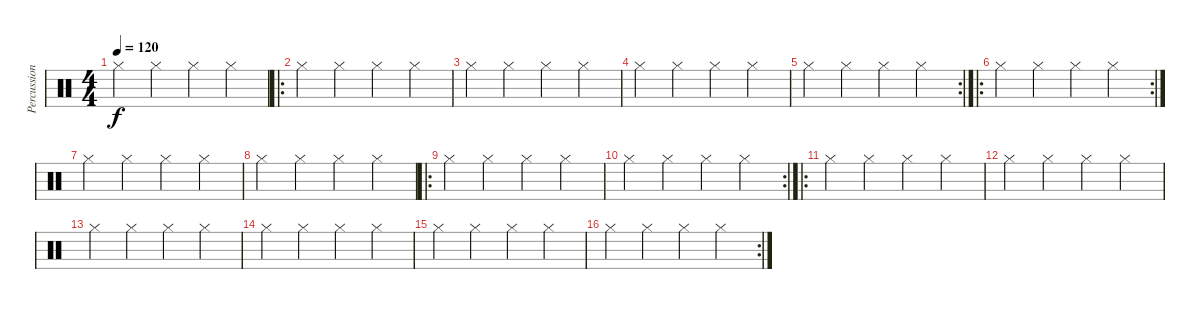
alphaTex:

\track ("Percussioni" "Percussion") {instrument percussion}
\staff {score}
\articulation defaults
\ts (4 4)
\tempo 120
\clef neutral
\ks c "Hi-Hat (closed)".4{dy f} "Hi-Hat (closed)".4 "Hi-Hat (closed)".4 "Hi-Hat (closed)".4
|
\ro "Hi-Hat (closed)".4 "Hi-Hat (closed)".4 "Hi-Hat (closed)".4 "Hi-Hat (closed)".4
|
"Hi-Hat (closed)".4 "Hi-Hat (closed)".4 "Hi-Hat (closed)".4 "Hi-Hat (closed)".4 |
"Hi-Hat (closed)".4 "Hi-Hat (closed)".4 "Hi-Hat (closed)".4 "Hi-Hat (closed)".4 |
\rc 2 "Hi-Hat (closed)".4 "Hi-Hat (closed)".4 "Hi-Hat (closed)".4 "Hi-Hat (closed)".4
|
\ro
\rc 2 "Hi-Hat (closed)".4 "Hi-Hat (closed)".4 "Hi-Hat (closed)".4 "Hi-Hat (closed)".4
|
"Hi-Hat (closed)".4 "Hi-Hat (closed)".4 "Hi-Hat (closed)".4 "Hi-Hat (closed)".4 |
"Hi-Hat (closed)".4 "Hi-Hat (closed)".4 "Hi-Hat (closed)".4 "Hi-Hat (closed)".4 |
\ro "Hi-Hat (closed)".4 "Hi-Hat (closed)".4 "Hi-Hat (closed)".4 "Hi-Hat (closed)".4
|
\rc 2 "Hi-Hat (closed)".4 "Hi-Hat (closed)".4 "Hi-Hat (closed)".4 "Hi-Hat (closed)".4
|
\ro "Hi-Hat (closed)".4 "Hi-Hat (closed)".4 "Hi-Hat (closed)".4 "Hi-Hat (closed)".4
|
"Hi-Hat (closed)".4 "Hi-Hat (closed)".4 "Hi-Hat (closed)".4 "Hi-Hat (closed)".4 |
"Hi-Hat (closed)".4 "Hi-Hat (closed)".4 "Hi-Hat (closed)".4 "Hi-Hat (closed)".4 |
"Hi-Hat (closed)".4 "Hi-Hat (closed)".4 "Hi-Hat (closed)".4 "Hi-Hat (closed)".4 |
"Hi-Hat (closed)".4 "Hi-Hat (closed)".4 "Hi-Hat (closed)".4 "Hi-Hat (closed)".4 |
\rc 2 "Hi-Hat (closed)".4 "Hi-Hat (closed)".4 "Hi-Hat (closed)".4 "Hi-Hat (closed)".4
